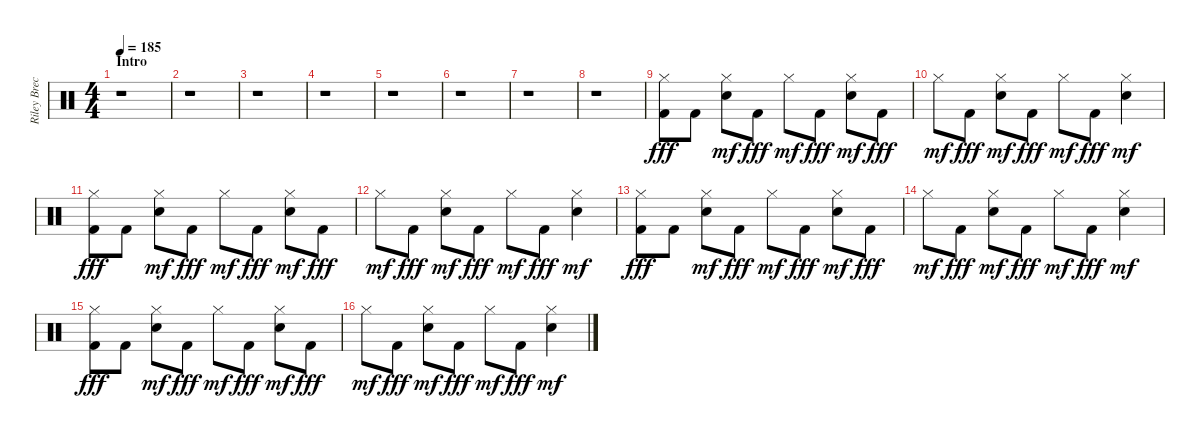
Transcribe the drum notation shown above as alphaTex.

\track ("Riley Breckenridge (Drums)" "Riley Brec") {instrument percussion}
\staff {score}
\articulation defaults
\ts (4 4)
\section ("" "Intro")
\tempo 185
\clef neutral
\ks c
r.1{dy fff} |
r.1 |
r.1 |
r.1 |
r.1 |
r.1 |
r.1 |
r.1 |
("Hi-Hat (closed)" "Kick (hit) 2").8 "Kick (hit) 2".8 ("Hi-Hat (closed)" "Electric Snare (hit)").8{dy mf} "Kick (hit) 2".8{dy fff} "Hi-Hat (closed)".8{dy mf} "Kick (hit) 2".8{dy fff} ("Hi-Hat (closed)" "Electric Snare (hit)").8{dy mf} "Kick (hit) 2".8{dy fff} |
"Hi-Hat (closed)".8{dy mf} "Kick (hit) 2".8{dy fff} ("Hi-Hat (closed)" "Electric Snare (hit)").8{dy mf} "Kick (hit) 2".8{dy fff} "Hi-Hat (closed)".8{dy mf} "Kick (hit) 2".8{dy fff} ("Hi-Hat (closed)" "Electric Snare (hit)").4{dy mf} |
("Hi-Hat (closed)" "Kick (hit) 2").8{dy fff} "Kick (hit) 2".8 ("Hi-Hat (closed)" "Electric Snare (hit)").8{dy mf} "Kick (hit) 2".8{dy fff} "Hi-Hat (closed)".8{dy mf} "Kick (hit) 2".8{dy fff} ("Hi-Hat (closed)" "Electric Snare (hit)").8{dy mf} "Kick (hit) 2".8{dy fff} |
"Hi-Hat (closed)".8{dy mf} "Kick (hit) 2".8{dy fff} ("Hi-Hat (closed)" "Electric Snare (hit)").8{dy mf} "Kick (hit) 2".8{dy fff} "Hi-Hat (closed)".8{dy mf} "Kick (hit) 2".8{dy fff} ("Hi-Hat (closed)" "Electric Snare (hit)").4{dy mf} |
("Hi-Hat (closed)" "Kick (hit) 2").8{dy fff} "Kick (hit) 2".8 ("Hi-Hat (closed)" "Electric Snare (hit)").8{dy mf} "Kick (hit) 2".8{dy fff} "Hi-Hat (closed)".8{dy mf} "Kick (hit) 2".8{dy fff} ("Hi-Hat (closed)" "Electric Snare (hit)").8{dy mf} "Kick (hit) 2".8{dy fff} |
"Hi-Hat (closed)".8{dy mf} "Kick (hit) 2".8{dy fff} ("Hi-Hat (closed)" "Electric Snare (hit)").8{dy mf} "Kick (hit) 2".8{dy fff} "Hi-Hat (closed)".8{dy mf} "Kick (hit) 2".8{dy fff} ("Hi-Hat (closed)" "Electric Snare (hit)").4{dy mf} |
("Hi-Hat (closed)" "Kick (hit) 2").8{dy fff} "Kick (hit) 2".8 ("Hi-Hat (closed)" "Electric Snare (hit)").8{dy mf} "Kick (hit) 2".8{dy fff} "Hi-Hat (closed)".8{dy mf} "Kick (hit) 2".8{dy fff} ("Hi-Hat (closed)" "Electric Snare (hit)").8{dy mf} "Kick (hit) 2".8{dy fff} |
"Hi-Hat (closed)".8{dy mf} "Kick (hit) 2".8{dy fff} ("Hi-Hat (closed)" "Electric Snare (hit)").8{dy mf} "Kick (hit) 2".8{dy fff} "Hi-Hat (closed)".8{dy mf} "Kick (hit) 2".8{dy fff} ("Hi-Hat (closed)" "Electric Snare (hit)").4{dy mf}
